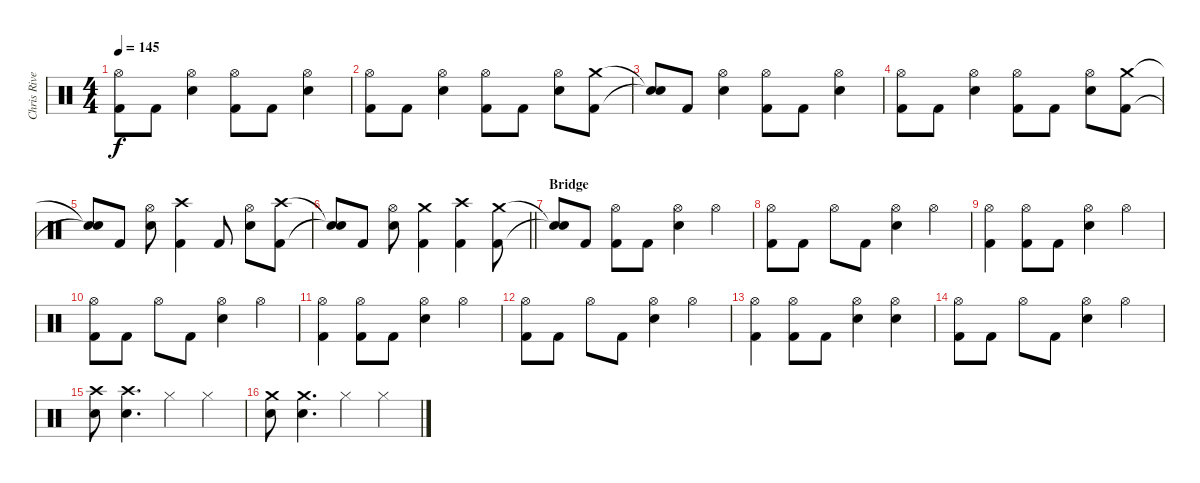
\track ("Chris Rivers" "Chris Rive") {instrument percussion}
\staff {score}
\articulation defaults
\ts (4 4)
\tempo 145
\clef neutral
\ks c
("Hi-Hat (open)" "Kick (hit) 2").8{dy f} "Kick (hit) 2".8 ("Hi-Hat (open)" "Electric Snare (hit)").4 ("Hi-Hat (open)" "Kick (hit) 2").8 "Kick (hit) 2".8 ("Hi-Hat (open)" "Electric Snare (hit)").4 |
("Hi-Hat (open)" "Kick (hit) 2").8 "Kick (hit) 2".8 ("Hi-Hat (open)" "Electric Snare (hit)").4 ("Hi-Hat (open)" "Kick (hit) 2").8 "Kick (hit) 2".8 ("Hi-Hat (open)" "Electric Snare (hit)").8 ("Crash medium (hit)" "Kick (hit) 2").8 |
("Snare (hit)"{t} "Snare (hit)"{t}).8 "Kick (hit) 2".8 ("Hi-Hat (open)" "Electric Snare (hit)").4 ("Hi-Hat (open)" "Kick (hit) 2").8 "Kick (hit) 2".8 ("Hi-Hat (open)" "Electric Snare (hit)").4 |
("Hi-Hat (open)" "Kick (hit) 2").8 "Kick (hit) 2".8 ("Hi-Hat (open)" "Electric Snare (hit)").4 ("Hi-Hat (open)" "Kick (hit) 2").8 "Kick (hit) 2".8 ("Hi-Hat (open)" "Electric Snare (hit)").8 ("Crash medium (hit)" "Kick (hit) 2").8 |
("Snare (hit)"{t} "Snare (hit)"{t}).8 "Kick (hit) 2".8 ("Hi-Hat (open)" "Electric Snare (hit)").8 ("Crash high (hit)" "Kick (hit) 2").4 "Kick (hit) 2".8 ("Hi-Hat (open)" "Electric Snare (hit)").8 ("Crash high (hit)" "Kick (hit) 2").8 |
\barLineRight lightlight
("Snare (hit)"{t} "Snare (hit)"{t}).8 "Kick (hit) 2".8 ("Hi-Hat (open)" "Electric Snare (hit)").8 ("Crash medium (hit)" "Kick (hit) 2").4 ("Crash high (hit)" "Kick (hit) 2").4 ("Crash medium (hit)" "Kick (hit) 2").8 |
\section ("" "Bridge")
("Snare (hit)"{t} "Snare (hit)"{t}).8 "Kick (hit) 2".8 ("Hi-Hat (open)" "Kick (hit) 2").8 "Kick (hit) 2".8 ("Hi-Hat (open)" "Electric Snare (hit)").4 "Hi-Hat (open)".4 |
("Hi-Hat (open)" "Kick (hit) 2").8 "Kick (hit) 2".8 "Hi-Hat (open)".8 "Kick (hit) 2".8 ("Hi-Hat (open)" "Electric Snare (hit)").4 "Hi-Hat (open)".4 |
("Hi-Hat (open)" "Kick (hit) 2").4 ("Hi-Hat (open)" "Kick (hit) 2").8 "Kick (hit) 2".8 ("Hi-Hat (open)" "Electric Snare (hit)").4 "Hi-Hat (open)".4 |
("Hi-Hat (open)" "Kick (hit) 2").8 "Kick (hit) 2".8 "Hi-Hat (open)".8 "Kick (hit) 2".8 ("Hi-Hat (open)" "Electric Snare (hit)").4 "Hi-Hat (open)".4 |
("Hi-Hat (open)" "Kick (hit) 2").4 ("Hi-Hat (open)" "Kick (hit) 2").8 "Kick (hit) 2".8 ("Hi-Hat (open)" "Electric Snare (hit)").4 "Hi-Hat (open)".4 |
("Hi-Hat (open)" "Kick (hit) 2").8 "Kick (hit) 2".8 "Hi-Hat (open)".8 "Kick (hit) 2".8 ("Hi-Hat (open)" "Electric Snare (hit)").4 "Hi-Hat (open)".4 |
("Hi-Hat (open)" "Kick (hit) 2").4 ("Hi-Hat (open)" "Kick (hit) 2").8 "Kick (hit) 2".8 ("Hi-Hat (open)" "Electric Snare (hit)").4 ("Hi-Hat (open)" "Electric Snare (hit)").4 |
("Hi-Hat (open)" "Kick (hit) 2").8 "Kick (hit) 2".8 "Hi-Hat (open)".8 "Kick (hit) 2".8 ("Hi-Hat (open)" "Electric Snare (hit)").4 "Hi-Hat (open)".4 |
("Crash high (hit)" "Electric Snare (hit)").8 ("Crash high (hit)" "Electric Snare (hit)").4{d} "Hi-Hat (closed)".4 "Hi-Hat (closed)".4 |
("Crash medium (hit)" "Electric Snare (hit)").8 ("Crash medium (hit)" "Electric Snare (hit)").4{d} "Hi-Hat (closed)".4 "Hi-Hat (closed)".4
